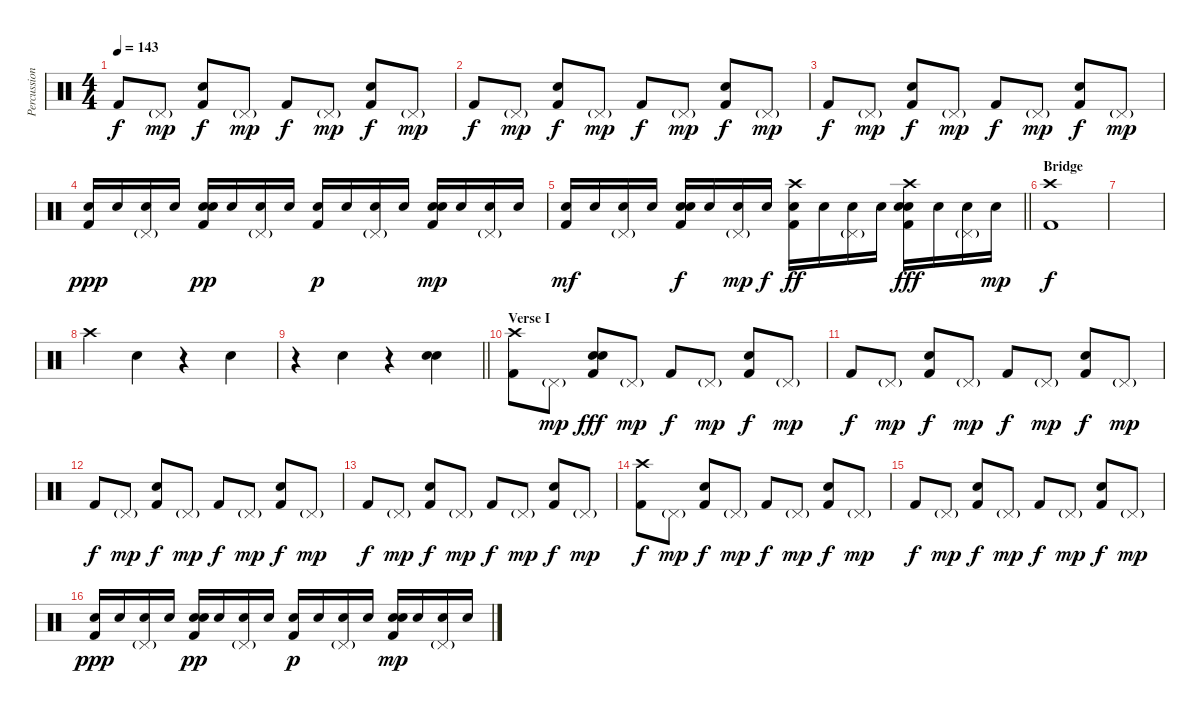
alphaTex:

\track ("Percussion" "Percussion") {instrument percussion}
\staff {score}
\articulation defaults
\ts (4 4)
\tempo 143
\clef neutral
\ks c "Kick (hit) 2".8{dy f} "Pedal Hi-Hat (hit)"{g}.8{dy mp}
("Electric Snare (hit)" "Kick (hit) 2").8{dy f} "Pedal Hi-Hat (hit)"{g}.8{dy mp} "Kick (hit) 2".8{dy f} "Pedal Hi-Hat (hit)"{g}.8{dy mp} ("Electric Snare (hit)" "Kick (hit) 2").8{dy f} "Pedal Hi-Hat (hit)"{g}.8{dy mp} |
"Kick (hit) 2".8{dy f} "Pedal Hi-Hat (hit)"{g}.8{dy mp} ("Electric Snare (hit)" "Kick (hit) 2").8{dy f} "Pedal Hi-Hat (hit)"{g}.8{dy mp} "Kick (hit) 2".8{dy f} "Pedal Hi-Hat (hit)"{g}.8{dy mp} ("Electric Snare (hit)" "Kick (hit) 2").8{dy f} "Pedal Hi-Hat (hit)"{g}.8{dy mp} |
"Kick (hit) 2".8{dy f} "Pedal Hi-Hat (hit)"{g}.8{dy mp} ("Electric Snare (hit)" "Kick (hit) 2").8{dy f} "Pedal Hi-Hat (hit)"{g}.8{dy mp} "Kick (hit) 2".8{dy f} "Pedal Hi-Hat (hit)"{g}.8{dy mp} ("Electric Snare (hit)" "Kick (hit) 2").8{dy f} "Pedal Hi-Hat (hit)"{g}.8{dy mp} |
("Snare (hit) 2" "Kick (hit) 2").16{dy ppp} "Snare (hit) 2".16 ("Pedal Hi-Hat (hit)"{g} "Snare (hit) 2").16 "Snare (hit) 2".16 ("Electric Snare (hit)" "Snare (hit) 2" "Kick (hit) 2").16{dy pp} "Snare (hit) 2".16 ("Pedal Hi-Hat (hit)"{g} "Snare (hit) 2").16 "Snare (hit) 2".16 ("Snare (hit) 2" "Kick (hit) 2").16{dy p} "Snare (hit) 2".16 ("Pedal Hi-Hat (hit)"{g} "Snare (hit) 2").16 "Snare (hit) 2".16 ("Electric Snare (hit)" "Snare (hit) 2" "Kick (hit) 2").16{dy mp} "Snare (hit) 2".16 ("Pedal Hi-Hat (hit)"{g} "Snare (hit) 2").16 "Snare (hit) 2".16 |
\barLineRight lightlight
("Snare (hit) 2" "Kick (hit) 2").16{dy mf} "Snare (hit) 2".16 ("Pedal Hi-Hat (hit)"{g} "Snare (hit) 2").16 "Snare (hit) 2".16 ("Electric Snare (hit)" "Snare (hit) 2" "Kick (hit) 2").16{dy f} "Snare (hit) 2".16 ("Pedal Hi-Hat (hit)"{g} "Snare (hit) 2").16{dy mp} "Snare (hit) 2".16{dy f} ("Crash high (hit)" "Snare (hit) 2" "Kick (hit) 2").16{dy ff} "Snare (hit) 2".16 ("Pedal Hi-Hat (hit)"{g} "Snare (hit) 2").16 "Snare (hit) 2".16 ("Electric Snare (hit)" "Crash high (hit)" "Snare (hit) 2" "Kick (hit) 2").16{dy fff} "Snare (hit) 2".16 ("Pedal Hi-Hat (hit)"{g} "Snare (hit) 2").16 "Snare (hit) 2".16{dy mp} |
\section ("" "Bridge")
("Crash high (hit)" "Kick (hit) 2").1{dy f} |
|
"Crash high (hit)".4 "Hand Clap (hit)".4 r.4 "Hand Clap (hit)".4 |
\barLineRight lightlight
r.4 "Hand Clap (hit)".4 r.4 ("Hand Clap (hit)" "Electric Snare (hit)").4 |
\section ("" "Verse I")
("Crash high (hit)" "Kick (hit) 2").8 "Pedal Hi-Hat (hit)"{g}.8{dy mp} ("Electric Snare (hit)" "Hand Clap (hit)" "Kick (hit) 2").8{dy fff} "Pedal Hi-Hat (hit)"{g}.8{dy mp} "Kick (hit) 2".8{dy f} "Pedal Hi-Hat (hit)"{g}.8{dy mp} ("Electric Snare (hit)" "Kick (hit) 2").8{dy f} "Pedal Hi-Hat (hit)"{g}.8{dy mp} |
"Kick (hit) 2".8{dy f} "Pedal Hi-Hat (hit)"{g}.8{dy mp} ("Electric Snare (hit)" "Kick (hit) 2").8{dy f} "Pedal Hi-Hat (hit)"{g}.8{dy mp} "Kick (hit) 2".8{dy f} "Pedal Hi-Hat (hit)"{g}.8{dy mp} ("Electric Snare (hit)" "Kick (hit) 2").8{dy f} "Pedal Hi-Hat (hit)"{g}.8{dy mp} |
"Kick (hit) 2".8{dy f} "Pedal Hi-Hat (hit)"{g}.8{dy mp} ("Electric Snare (hit)" "Kick (hit) 2").8{dy f} "Pedal Hi-Hat (hit)"{g}.8{dy mp} "Kick (hit) 2".8{dy f} "Pedal Hi-Hat (hit)"{g}.8{dy mp} ("Electric Snare (hit)" "Kick (hit) 2").8{dy f} "Pedal Hi-Hat (hit)"{g}.8{dy mp} |
"Kick (hit) 2".8{dy f} "Pedal Hi-Hat (hit)"{g}.8{dy mp} ("Electric Snare (hit)" "Kick (hit) 2").8{dy f} "Pedal Hi-Hat (hit)"{g}.8{dy mp} "Kick (hit) 2".8{dy f} "Pedal Hi-Hat (hit)"{g}.8{dy mp} ("Electric Snare (hit)" "Kick (hit) 2").8{dy f} "Pedal Hi-Hat (hit)"{g}.8{dy mp} |
("Crash high (hit)" "Kick (hit) 2").8{dy f} "Pedal Hi-Hat (hit)"{g}.8{dy mp} ("Electric Snare (hit)" "Kick (hit) 2").8{dy f} "Pedal Hi-Hat (hit)"{g}.8{dy mp} "Kick (hit) 2".8{dy f} "Pedal Hi-Hat (hit)"{g}.8{dy mp} ("Electric Snare (hit)" "Kick (hit) 2").8{dy f} "Pedal Hi-Hat (hit)"{g}.8{dy mp} |
"Kick (hit) 2".8{dy f} "Pedal Hi-Hat (hit)"{g}.8{dy mp} ("Electric Snare (hit)" "Kick (hit) 2").8{dy f} "Pedal Hi-Hat (hit)"{g}.8{dy mp} "Kick (hit) 2".8{dy f} "Pedal Hi-Hat (hit)"{g}.8{dy mp} ("Electric Snare (hit)" "Kick (hit) 2").8{dy f} "Pedal Hi-Hat (hit)"{g}.8{dy mp} |
("Snare (hit) 2" "Kick (hit) 2").16{dy ppp} "Snare (hit) 2".16 ("Pedal Hi-Hat (hit)"{g} "Snare (hit) 2").16 "Snare (hit) 2".16 ("Electric Snare (hit)" "Snare (hit) 2" "Kick (hit) 2").16{dy pp} "Snare (hit) 2".16 ("Pedal Hi-Hat (hit)"{g} "Snare (hit) 2").16 "Snare (hit) 2".16 ("Snare (hit) 2" "Kick (hit) 2").16{dy p} "Snare (hit) 2".16 ("Pedal Hi-Hat (hit)"{g} "Snare (hit) 2").16 "Snare (hit) 2".16 ("Electric Snare (hit)" "Snare (hit) 2" "Kick (hit) 2").16{dy mp} "Snare (hit) 2".16 ("Pedal Hi-Hat (hit)"{g} "Snare (hit) 2").16 "Snare (hit) 2".16
